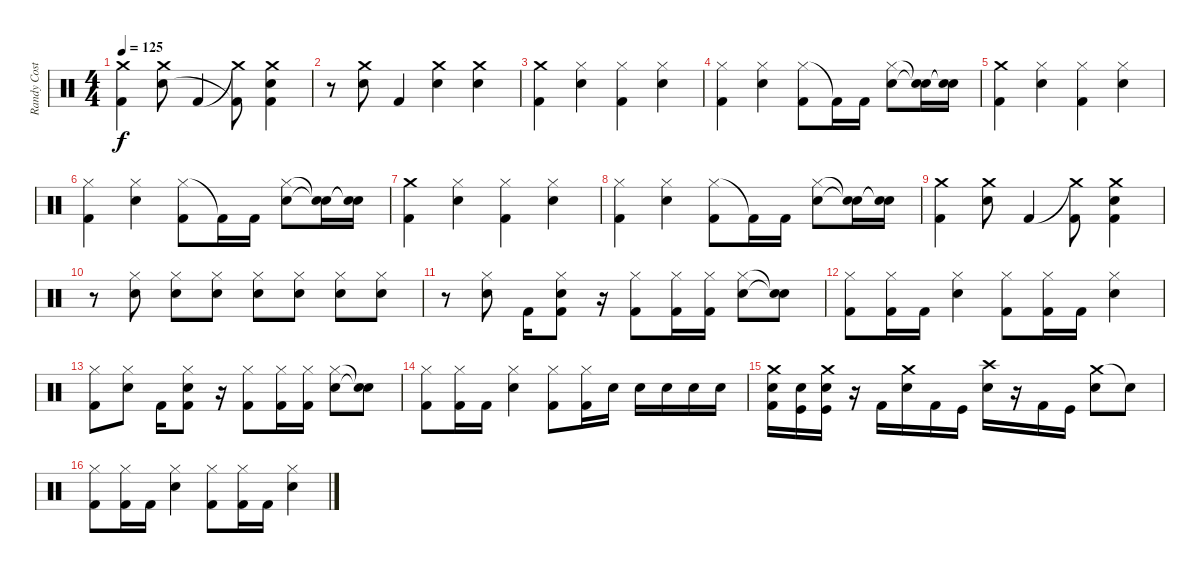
\track ("Randy Costillo" "Randy Cost") {instrument percussion}
\staff {score}
\articulation defaults
\ts (4 4)
\tempo 125
\clef neutral
\ks c
("Crash medium (hit)" "Kick (hit) 2").4{dy f} ("Crash medium (hit)" "Snare (hit) 2").8 "Kick (hit) 2".4 ("Crash medium (hit)"{t} "Kick (hit) 2"{t}).8 ("Crash medium (hit)" "Snare (hit) 2" "Kick (hit) 2").4 |
r.8 ("Crash medium (hit)" "Snare (hit) 2").8 "Kick (hit) 2".4 ("Crash medium (hit)" "Snare (hit) 2").4 ("Crash medium (hit)" "Snare (hit) 2").4 |
("Crash medium (hit)" "Kick (hit) 2").4 ("Hi-Hat (closed)" "Snare (hit) 2").4 ("Hi-Hat (closed)" "Kick (hit) 2").4 ("Hi-Hat (closed)" "Snare (hit) 2").4 |
("Hi-Hat (closed)" "Kick (hit) 2").4 ("Hi-Hat (closed)" "Snare (hit) 2").4 ("Hi-Hat (closed)" "Kick (hit) 2").8 "Kick (hit) 2"{t}.16 "Kick (hit) 2".16 ("Hi-Hat (closed)" "Snare (hit) 2").8 ("Snare (hit)"{t} "Snare (hit)"{t}).16 ("Snare (hit)"{t} "Snare (hit)"{t}).16 |
("Crash medium (hit)" "Kick (hit) 2").4 ("Hi-Hat (closed)" "Snare (hit) 2").4 ("Hi-Hat (closed)" "Kick (hit) 2").4 ("Hi-Hat (closed)" "Snare (hit) 2").4 |
("Hi-Hat (closed)" "Kick (hit) 2").4 ("Hi-Hat (closed)" "Snare (hit) 2").4 ("Hi-Hat (closed)" "Kick (hit) 2").8 "Kick (hit) 2"{t}.16 "Kick (hit) 2".16 ("Hi-Hat (closed)" "Snare (hit) 2").8 ("Snare (hit)"{t} "Snare (hit)"{t}).16 ("Snare (hit)"{t} "Snare (hit)"{t}).16 |
("Crash medium (hit)" "Kick (hit) 2").4 ("Hi-Hat (closed)" "Snare (hit) 2").4 ("Hi-Hat (closed)" "Kick (hit) 2").4 ("Hi-Hat (closed)" "Snare (hit) 2").4 |
("Hi-Hat (closed)" "Kick (hit) 2").4 ("Hi-Hat (closed)" "Snare (hit) 2").4 ("Hi-Hat (closed)" "Kick (hit) 2").8 "Kick (hit) 2"{t}.16 "Kick (hit) 2".16 ("Hi-Hat (closed)" "Snare (hit) 2").8 ("Snare (hit)"{t} "Snare (hit)"{t}).16 ("Snare (hit)"{t} "Snare (hit)"{t}).16 |
("Crash medium (hit)" "Kick (hit) 2").4 ("Crash medium (hit)" "Snare (hit) 2").8 "Kick (hit) 2".4 ("Crash medium (hit)"{t} "Kick (hit) 2").8 ("Crash medium (hit)" "Snare (hit) 2" "Kick (hit) 2").4 |
r.8 ("Hi-Hat (closed)" "Snare (hit) 2").8 ("Hi-Hat (closed)" "Snare (hit) 2").8 ("Hi-Hat (closed)" "Snare (hit) 2").8 ("Hi-Hat (closed)" "Snare (hit) 2").8 ("Hi-Hat (closed)" "Snare (hit) 2").8 ("Hi-Hat (closed)" "Snare (hit) 2").8 ("Hi-Hat (closed)" "Snare (hit) 2").8 |
r.8 ("Hi-Hat (closed)" "Snare (hit) 2").8 "Kick (hit) 2".16 ("Hi-Hat (closed)" "Snare (hit) 2" "Kick (hit) 2").8 r.16 ("Hi-Hat (closed)" "Kick (hit) 2").8 ("Hi-Hat (closed)" "Kick (hit) 2").16 ("Hi-Hat (closed)" "Kick (hit) 2").16 ("Hi-Hat (closed)" "Snare (hit) 2").8 ("Snare (hit)"{t} "Snare (hit)"{t}).8 |
("Hi-Hat (closed)" "Kick (hit) 2").8 ("Hi-Hat (closed)" "Kick (hit) 2").16 "Kick (hit) 2".16 ("Hi-Hat (closed)" "Snare (hit) 2").4 ("Hi-Hat (closed)" "Kick (hit) 2").8 ("Hi-Hat (closed)" "Kick (hit) 2").16 "Kick (hit) 2".16 ("Hi-Hat (closed)" "Snare (hit) 2").4 |
("Hi-Hat (closed)" "Kick (hit) 2").8 ("Hi-Hat (closed)" "Snare (hit) 2").8 "Kick (hit) 2".16 ("Hi-Hat (closed)" "Snare (hit) 2" "Kick (hit) 2").8 r.16 ("Hi-Hat (closed)" "Kick (hit) 2").8 ("Hi-Hat (closed)" "Kick (hit) 2").16 ("Hi-Hat (closed)" "Kick (hit) 2").16 ("Hi-Hat (closed)" "Snare (hit) 2").8 ("Snare (hit)"{t} "Snare (hit)"{t}).8 |
("Hi-Hat (closed)" "Kick (hit) 2").8 ("Hi-Hat (closed)" "Kick (hit) 2").16 "Kick (hit) 2".16 ("Hi-Hat (closed)" "Snare (hit) 2").4 ("Hi-Hat (closed)" "Kick (hit) 2").8 ("Hi-Hat (closed)" "Kick (hit) 2").16 "Snare (hit) 2".16 "Snare (hit) 2".16 "Snare (hit) 2".16 "Snare (hit) 2".16 "Snare (hit) 2".16 |
("Crash medium (hit)" "Snare (hit) 2" "Kick (hit) 2").16 ("Snare (hit) 2" "Kick (hit)").16 ("Crash medium (hit)" "Snare (hit) 2" "Kick (hit)").16 r.16 "Kick (hit) 2".16 ("Crash medium (hit)" "Snare (hit) 2").16 "Kick (hit) 2".16 "Kick (hit)".16 ("Crash high (hit)" "Snare (hit) 2").16 r.16 "Kick (hit) 2".16 "Kick (hit)".16 ("Crash medium (hit)" "Snare (hit) 2").8 "Snare (hit)"{t}.8 |
("Hi-Hat (closed)" "Kick (hit) 2").8 ("Hi-Hat (closed)" "Kick (hit) 2").16 "Kick (hit) 2".16 ("Hi-Hat (closed)" "Snare (hit) 2").4 ("Hi-Hat (closed)" "Kick (hit) 2").8 ("Hi-Hat (closed)" "Kick (hit) 2").16 "Kick (hit) 2".16 ("Hi-Hat (closed)" "Snare (hit) 2").4
